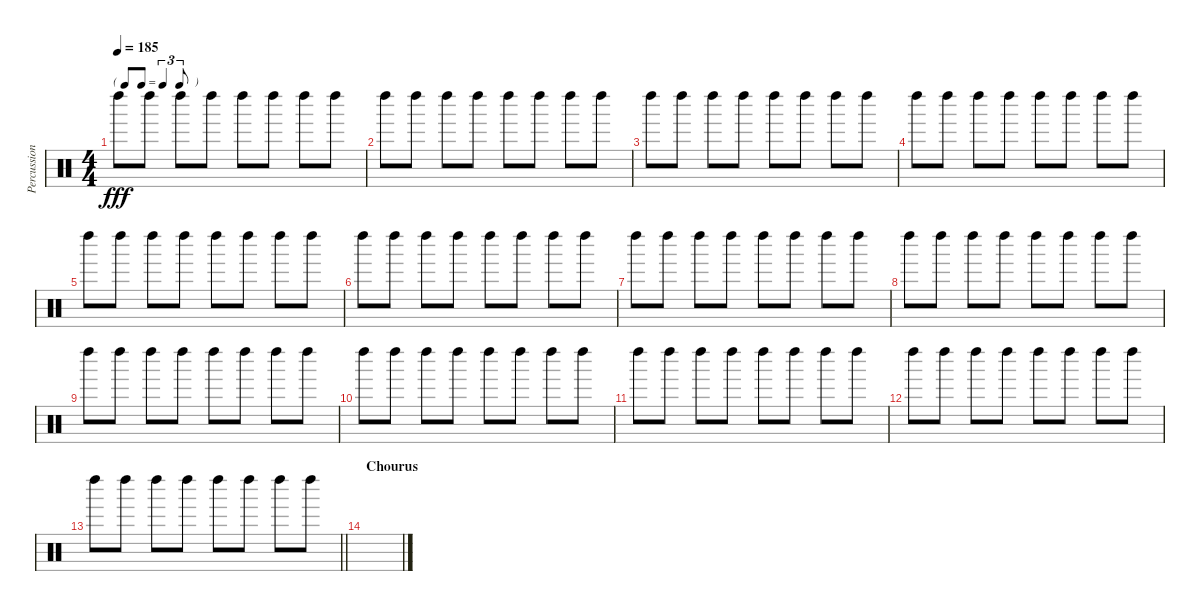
\track ("Percussion" "Percussion") {instrument percussion}
\staff {score}
\articulation defaults
\ts (4 4)
\tf triplet8th
\tempo 185
\clef neutral
\ks c "Left Maraca (hit)".8{dy fff} "Left Maraca (hit)".8 "Left Maraca (hit)".8 "Left Maraca (hit)".8 "Left Maraca (hit)".8 "Left Maraca (hit)".8 "Left Maraca (hit)".8 "Left Maraca (hit)".8
|
"Left Maraca (hit)".8 "Left Maraca (hit)".8 "Left Maraca (hit)".8 "Left Maraca (hit)".8 "Left Maraca (hit)".8 "Left Maraca (hit)".8 "Left Maraca (hit)".8 "Left Maraca (hit)".8 |
"Left Maraca (hit)".8 "Left Maraca (hit)".8 "Left Maraca (hit)".8 "Left Maraca (hit)".8 "Left Maraca (hit)".8 "Left Maraca (hit)".8 "Left Maraca (hit)".8 "Left Maraca (hit)".8 |
"Left Maraca (hit)".8 "Left Maraca (hit)".8 "Left Maraca (hit)".8 "Left Maraca (hit)".8 "Left Maraca (hit)".8 "Left Maraca (hit)".8 "Left Maraca (hit)".8 "Left Maraca (hit)".8 |
"Left Maraca (hit)".8 "Left Maraca (hit)".8 "Left Maraca (hit)".8 "Left Maraca (hit)".8 "Left Maraca (hit)".8 "Left Maraca (hit)".8 "Left Maraca (hit)".8 "Left Maraca (hit)".8 |
"Left Maraca (hit)".8 "Left Maraca (hit)".8 "Left Maraca (hit)".8 "Left Maraca (hit)".8 "Left Maraca (hit)".8 "Left Maraca (hit)".8 "Left Maraca (hit)".8 "Left Maraca (hit)".8 |
"Left Maraca (hit)".8 "Left Maraca (hit)".8 "Left Maraca (hit)".8 "Left Maraca (hit)".8 "Left Maraca (hit)".8 "Left Maraca (hit)".8 "Left Maraca (hit)".8 "Left Maraca (hit)".8 |
"Left Maraca (hit)".8 "Left Maraca (hit)".8 "Left Maraca (hit)".8 "Left Maraca (hit)".8 "Left Maraca (hit)".8 "Left Maraca (hit)".8 "Left Maraca (hit)".8 "Left Maraca (hit)".8 |
"Left Maraca (hit)".8 "Left Maraca (hit)".8 "Left Maraca (hit)".8 "Left Maraca (hit)".8 "Left Maraca (hit)".8 "Left Maraca (hit)".8 "Left Maraca (hit)".8 "Left Maraca (hit)".8 |
"Left Maraca (hit)".8 "Left Maraca (hit)".8 "Left Maraca (hit)".8 "Left Maraca (hit)".8 "Left Maraca (hit)".8 "Left Maraca (hit)".8 "Left Maraca (hit)".8 "Left Maraca (hit)".8 |
"Left Maraca (hit)".8 "Left Maraca (hit)".8 "Left Maraca (hit)".8 "Left Maraca (hit)".8 "Left Maraca (hit)".8 "Left Maraca (hit)".8 "Left Maraca (hit)".8 "Left Maraca (hit)".8 |
"Left Maraca (hit)".8 "Left Maraca (hit)".8 "Left Maraca (hit)".8 "Left Maraca (hit)".8 "Left Maraca (hit)".8 "Left Maraca (hit)".8 "Left Maraca (hit)".8 "Left Maraca (hit)".8 |
\barLineRight lightlight "Left Maraca (hit)".8 "Left Maraca (hit)".8 "Left Maraca (hit)".8 "Left Maraca (hit)".8 "Left Maraca (hit)".8 "Left Maraca (hit)".8 "Left Maraca (hit)".8 "Left Maraca (hit)".8
|
\section ("" "Chourus")
